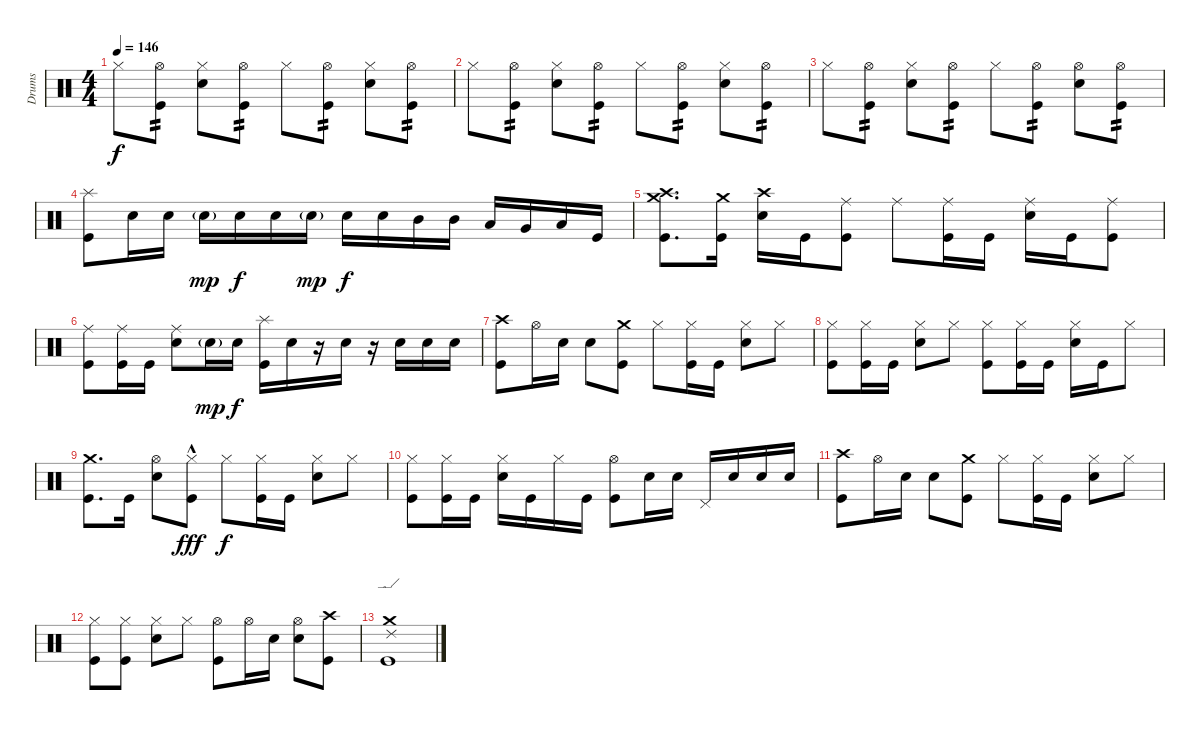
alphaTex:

\track ("Drums" "Drums") {instrument percussion}
\staff {score}
\articulation defaults
\ts (4 4)
\tempo 146
\clef neutral
\ks c "Hi-Hat (closed)".8{dy f}
("Hi-Hat (open)" "Kick (hit)").8{tp 2} ("Hi-Hat (closed)" "Electric Snare (hit)").8 ("Hi-Hat (open)" "Kick (hit)").8{tp 2} "Hi-Hat (closed)".8 ("Hi-Hat (open)" "Kick (hit)").8{tp 2} ("Hi-Hat (closed)" "Electric Snare (hit)").8 ("Hi-Hat (open)" "Kick (hit)").8{tp 2} |
"Hi-Hat (closed)".8 ("Hi-Hat (open)" "Kick (hit)").8{tp 2} ("Hi-Hat (closed)" "Electric Snare (hit)").8 ("Hi-Hat (open)" "Kick (hit)").8{tp 2} "Hi-Hat (closed)".8 ("Hi-Hat (open)" "Kick (hit)").8{tp 2} ("Hi-Hat (closed)" "Electric Snare (hit)").8 ("Hi-Hat (open)" "Kick (hit)").8{tp 2} |
"Hi-Hat (closed)".8 ("Hi-Hat (open)" "Kick (hit)").8{tp 2} ("Hi-Hat (closed)" "Electric Snare (hit)").8 ("Hi-Hat (open)" "Kick (hit)").8{tp 2} "Hi-Hat (closed)".8 ("Hi-Hat (open)" "Kick (hit)").8{tp 2} ("Hi-Hat (open)" "Electric Snare (hit)").8 ("Hi-Hat (open)" "Kick (hit)").8{tp 2} |
("Splash (hit)" "Kick (hit)").8 "Electric Snare (hit)".16 "Electric Snare (hit)".16 "Electric Snare (hit)"{g}.16{dy mp} "Electric Snare (hit)".16{dy f} "Electric Snare (hit)".16 "Electric Snare (hit)"{g}.16{dy mp} "Electric Snare (hit)".16{dy f} "Electric Snare (hit)".16 "Mid Tom (hit)".16 "Mid Tom (hit)".16 "Low Tom (hit)".16 "Very Low Tom (hit)".16 "Low Floor Tom (hit)".16 "Kick (hit)".16 |
("Crash medium (hit)" "Crash high (hit)" "Kick (hit)").8{d} ("Crash medium (hit)" "Kick (hit)").16 ("Crash high (hit)" "Electric Snare (hit)").16 "Kick (hit)".16 ("Ride (middle)" "Kick (hit)").8 "Ride (middle)".8 ("Ride (middle)" "Kick (hit)").16 "Kick (hit)".16 ("Ride (middle)" "Electric Snare (hit)").16 "Kick (hit)".16 ("Ride (middle)" "Kick (hit)").8 |
("Ride (middle)" "Kick (hit)").8 ("Ride (middle)" "Kick (hit)").16 "Kick (hit)".16 ("Ride (middle)" "Electric Snare (hit)").8 "Electric Snare (hit)"{g}.16{dy mp} "Electric Snare (hit)".16{dy f} ("Splash (hit)" "Kick (hit)").16 "Electric Snare (hit)".16 r.16 "Electric Snare (hit)".16 r.16 "Electric Snare (hit)".16 "Electric Snare (hit)".16 "Electric Snare (hit)".16 |
("Crash high (hit)" "Kick (hit)").8 "Hi-Hat (open)".16 "Electric Snare (hit)".16 "Electric Snare (hit)".8 ("Crash medium (hit)" "Kick (hit)").8 "Hi-Hat (closed)".8 ("Hi-Hat (closed)" "Kick (hit)").16 "Kick (hit)".16 ("Hi-Hat (closed)" "Electric Snare (hit)").8 "Hi-Hat (closed)".8 |
("Hi-Hat (closed)" "Kick (hit)").8 ("Hi-Hat (closed)" "Kick (hit)").16 "Kick (hit)".16 ("Hi-Hat (closed)" "Electric Snare (hit)").8 "Hi-Hat (closed)".8 ("Hi-Hat (closed)" "Kick (hit)").8 ("Hi-Hat (closed)" "Kick (hit)").16 "Kick (hit)".16 ("Hi-Hat (closed)" "Electric Snare (hit)").16 "Kick (hit)".16 "Hi-Hat (closed)".8 |
("Crash medium (hit)" "Kick (hit)").8{d} "Kick (hit)".16 ("Hi-Hat (open)" "Electric Snare (hit)").8 ("Hi-Hat (closed)"{hac} "Kick (hit)"{hac}).8{dy fff} "Hi-Hat (closed)".8{dy f} ("Hi-Hat (closed)" "Kick (hit)").16 "Kick (hit)".16 ("Hi-Hat (closed)" "Electric Snare (hit)").8 "Hi-Hat (closed)".8 |
("Hi-Hat (closed)" "Kick (hit)").8 ("Hi-Hat (closed)" "Kick (hit)").16 "Kick (hit)".16 ("Hi-Hat (closed)" "Electric Snare (hit)").16 "Kick (hit)".16 "Hi-Hat (closed)".16 "Kick (hit)".16 ("Hi-Hat (open)" "Kick (hit)").8 "Electric Snare (hit)".16 "Electric Snare (hit)".16 "Pedal Hi-Hat (hit)".16 "Electric Snare (hit)".16 "Electric Snare (hit)".16 "Electric Snare (hit)".16 |
("Crash high (hit)" "Kick (hit)").8 "Hi-Hat (open)".16 "Electric Snare (hit)".16 "Electric Snare (hit)".8 ("Crash medium (hit)" "Kick (hit)").8 "Hi-Hat (closed)".8 ("Hi-Hat (closed)" "Kick (hit)").16 "Kick (hit)".16 ("Hi-Hat (closed)" "Electric Snare (hit)").8 "Hi-Hat (closed)".8 |
("Hi-Hat (closed)" "Kick (hit)").8 ("Hi-Hat (closed)" "Kick (hit)").8 ("Hi-Hat (closed)" "Electric Snare (hit)").8 "Hi-Hat (closed)".8 ("Hi-Hat (open)" "Kick (hit)").8 "Hi-Hat (open)".16 "Electric Snare (hit)".16 ("Hi-Hat (open)" "Electric Snare (hit)").8 ("Crash high (hit)" "Kick (hit)").8 |
("Crash medium (hit)" "Ride (edge) 2" "Kick (hit)").1
